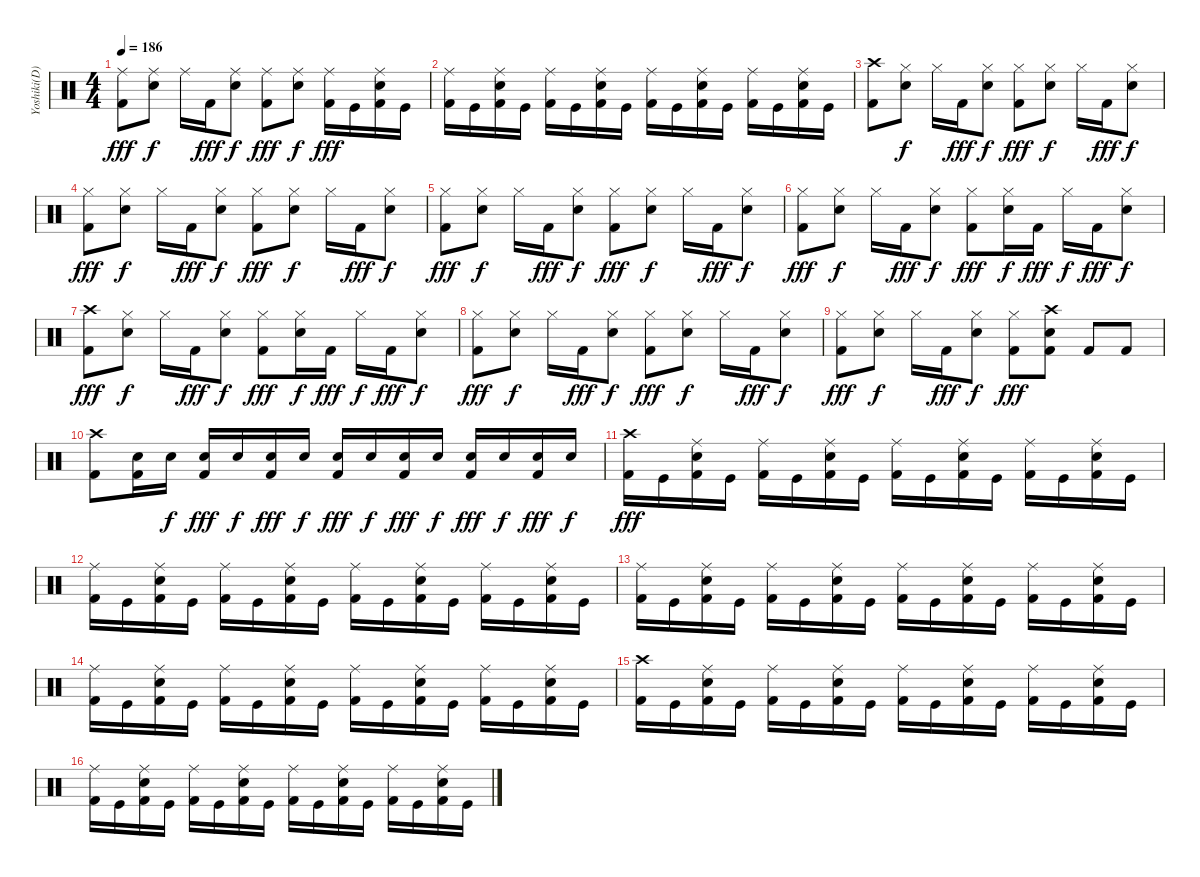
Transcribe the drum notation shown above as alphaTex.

\track ("Yoshiki(D)" "Yoshiki(D)") {instrument percussion}
\staff {score}
\articulation defaults
\ts (4 4)
\tempo 186
\clef neutral
\ks c
("Ride (middle)" "Kick (hit) 2").8{dy fff} ("Ride (middle)" "Electric Snare (hit)").8{dy f} "Ride (middle)".16 "Kick (hit) 2".16{dy fff} ("Ride (middle)" "Electric Snare (hit)").8{dy f} ("Ride (middle)" "Kick (hit) 2").8{dy fff} ("Ride (middle)" "Electric Snare (hit)").8{dy f} ("Ride (middle)" "Kick (hit) 2").16{dy fff} "Kick (hit)".16 ("Ride (middle)" "Electric Snare (hit)" "Kick (hit) 2").16 "Kick (hit)".16 |
("Ride (middle)" "Kick (hit) 2").16 "Kick (hit)".16 ("Ride (middle)" "Electric Snare (hit)" "Kick (hit) 2").16 "Kick (hit)".16 ("Ride (middle)" "Kick (hit) 2").16 "Kick (hit)".16 ("Ride (middle)" "Electric Snare (hit)" "Kick (hit) 2").16 "Kick (hit)".16 ("Ride (middle)" "Kick (hit) 2").16 "Kick (hit)".16 ("Ride (middle)" "Electric Snare (hit)" "Kick (hit) 2").16 "Kick (hit)".16 ("Ride (middle)" "Kick (hit) 2").16 "Kick (hit)".16 ("Ride (middle)" "Electric Snare (hit)" "Kick (hit) 2").16 "Kick (hit)".16 |
("Crash high (hit)" "Kick (hit) 2").8 ("Hi-Hat (closed)" "Electric Snare (hit)").8{dy f} "Hi-Hat (closed)".16 "Kick (hit) 2".16{dy fff} ("Hi-Hat (closed)" "Electric Snare (hit)").8{dy f} ("Hi-Hat (closed)" "Kick (hit) 2").8{dy fff} ("Hi-Hat (closed)" "Electric Snare (hit)").8{dy f} "Hi-Hat (closed)".16 "Kick (hit) 2".16{dy fff} ("Hi-Hat (closed)" "Electric Snare (hit)").8{dy f} |
("Hi-Hat (closed)" "Kick (hit) 2").8{dy fff} ("Hi-Hat (closed)" "Electric Snare (hit)").8{dy f} "Hi-Hat (closed)".16 "Kick (hit) 2".16{dy fff} ("Hi-Hat (closed)" "Electric Snare (hit)").8{dy f} ("Hi-Hat (closed)" "Kick (hit) 2").8{dy fff} ("Hi-Hat (closed)" "Electric Snare (hit)").8{dy f} "Hi-Hat (closed)".16 "Kick (hit) 2".16{dy fff} ("Hi-Hat (closed)" "Electric Snare (hit)").8{dy f} |
("Hi-Hat (closed)" "Kick (hit) 2").8{dy fff} ("Hi-Hat (closed)" "Electric Snare (hit)").8{dy f} "Hi-Hat (closed)".16 "Kick (hit) 2".16{dy fff} ("Hi-Hat (closed)" "Electric Snare (hit)").8{dy f} ("Hi-Hat (closed)" "Kick (hit) 2").8{dy fff} ("Hi-Hat (closed)" "Electric Snare (hit)").8{dy f} "Hi-Hat (closed)".16 "Kick (hit) 2".16{dy fff} ("Hi-Hat (closed)" "Electric Snare (hit)").8{dy f} |
("Hi-Hat (closed)" "Kick (hit) 2").8{dy fff} ("Hi-Hat (closed)" "Electric Snare (hit)").8{dy f} "Hi-Hat (closed)".16 "Kick (hit) 2".16{dy fff} ("Hi-Hat (closed)" "Electric Snare (hit)").8{dy f} ("Hi-Hat (closed)" "Kick (hit) 2").8{dy fff} ("Hi-Hat (closed)" "Electric Snare (hit)").16{dy f} "Kick (hit) 2".16{dy fff} "Hi-Hat (closed)".16{dy f} "Kick (hit) 2".16{dy fff} ("Hi-Hat (closed)" "Electric Snare (hit)").8{dy f} |
("Crash high (hit)" "Kick (hit) 2").8{dy fff} ("Hi-Hat (closed)" "Electric Snare (hit)").8{dy f} "Hi-Hat (closed)".16 "Kick (hit) 2".16{dy fff} ("Hi-Hat (closed)" "Electric Snare (hit)").8{dy f} ("Hi-Hat (closed)" "Kick (hit) 2").8{dy fff} ("Hi-Hat (closed)" "Electric Snare (hit)").16{dy f} "Kick (hit) 2".16{dy fff} "Hi-Hat (closed)".16{dy f} "Kick (hit) 2".16{dy fff} ("Hi-Hat (closed)" "Electric Snare (hit)").8{dy f} |
("Hi-Hat (closed)" "Kick (hit) 2").8{dy fff} ("Hi-Hat (closed)" "Electric Snare (hit)").8{dy f} "Hi-Hat (closed)".16 "Kick (hit) 2".16{dy fff} ("Hi-Hat (closed)" "Electric Snare (hit)").8{dy f} ("Hi-Hat (closed)" "Kick (hit) 2").8{dy fff} ("Hi-Hat (closed)" "Electric Snare (hit)").8{dy f} "Hi-Hat (closed)".16 "Kick (hit) 2".16{dy fff} ("Hi-Hat (closed)" "Electric Snare (hit)").8{dy f} |
("Hi-Hat (closed)" "Kick (hit) 2").8{dy fff} ("Hi-Hat (closed)" "Electric Snare (hit)").8{dy f} "Hi-Hat (closed)".16 "Kick (hit) 2".16{dy fff} ("Hi-Hat (closed)" "Electric Snare (hit)").8{dy f} ("Hi-Hat (closed)" "Kick (hit) 2").8{dy fff} ("Crash high (hit)" "Electric Snare (hit)" "Kick (hit) 2").8 "Kick (hit) 2".8 "Kick (hit) 2".8 |
("Crash high (hit)" "Kick (hit) 2").8 ("Electric Snare (hit)" "Kick (hit) 2").16 "Electric Snare (hit)".16{dy f} ("Electric Snare (hit)" "Kick (hit) 2").16{dy fff} "Electric Snare (hit)".16{dy f} ("Electric Snare (hit)" "Kick (hit) 2").16{dy fff} "Electric Snare (hit)".16{dy f} ("Electric Snare (hit)" "Kick (hit) 2").16{dy fff} "Electric Snare (hit)".16{dy f} ("Electric Snare (hit)" "Kick (hit) 2").16{dy fff} "Electric Snare (hit)".16{dy f} ("Electric Snare (hit)" "Kick (hit) 2").16{dy fff} "Electric Snare (hit)".16{dy f} ("Electric Snare (hit)" "Kick (hit) 2").16{dy fff} "Electric Snare (hit)".16{dy f} |
("Crash high (hit)" "Kick (hit) 2").16{dy fff} "Kick (hit)".16 ("Ride (middle)" "Electric Snare (hit)" "Kick (hit) 2").16 "Kick (hit)".16 ("Ride (middle)" "Kick (hit) 2").16 "Kick (hit)".16 ("Ride (middle)" "Electric Snare (hit)" "Kick (hit) 2").16 "Kick (hit)".16 ("Ride (middle)" "Kick (hit) 2").16 "Kick (hit)".16 ("Ride (middle)" "Electric Snare (hit)" "Kick (hit) 2").16 "Kick (hit)".16 ("Ride (middle)" "Kick (hit) 2").16 "Kick (hit)".16 ("Ride (middle)" "Electric Snare (hit)" "Kick (hit) 2").16 "Kick (hit)".16 |
("Ride (middle)" "Kick (hit) 2").16 "Kick (hit)".16 ("Ride (middle)" "Electric Snare (hit)" "Kick (hit) 2").16 "Kick (hit)".16 ("Ride (middle)" "Kick (hit) 2").16 "Kick (hit)".16 ("Ride (middle)" "Electric Snare (hit)" "Kick (hit) 2").16 "Kick (hit)".16 ("Ride (middle)" "Kick (hit) 2").16 "Kick (hit)".16 ("Ride (middle)" "Electric Snare (hit)" "Kick (hit) 2").16 "Kick (hit)".16 ("Ride (middle)" "Kick (hit) 2").16 "Kick (hit)".16 ("Ride (middle)" "Electric Snare (hit)" "Kick (hit) 2").16 "Kick (hit)".16 |
("Ride (middle)" "Kick (hit) 2").16 "Kick (hit)".16 ("Ride (middle)" "Electric Snare (hit)" "Kick (hit) 2").16 "Kick (hit)".16 ("Ride (middle)" "Kick (hit) 2").16 "Kick (hit)".16 ("Ride (middle)" "Electric Snare (hit)" "Kick (hit) 2").16 "Kick (hit)".16 ("Ride (middle)" "Kick (hit) 2").16 "Kick (hit)".16 ("Ride (middle)" "Electric Snare (hit)" "Kick (hit) 2").16 "Kick (hit)".16 ("Ride (middle)" "Kick (hit) 2").16 "Kick (hit)".16 ("Ride (middle)" "Electric Snare (hit)" "Kick (hit) 2").16 "Kick (hit)".16 |
("Ride (middle)" "Kick (hit) 2").16 "Kick (hit)".16 ("Ride (middle)" "Electric Snare (hit)" "Kick (hit) 2").16 "Kick (hit)".16 ("Ride (middle)" "Kick (hit) 2").16 "Kick (hit)".16 ("Ride (middle)" "Electric Snare (hit)" "Kick (hit) 2").16 "Kick (hit)".16 ("Ride (middle)" "Kick (hit) 2").16 "Kick (hit)".16 ("Ride (middle)" "Electric Snare (hit)" "Kick (hit) 2").16 "Kick (hit)".16 ("Ride (middle)" "Kick (hit) 2").16 "Kick (hit)".16 ("Ride (middle)" "Electric Snare (hit)" "Kick (hit) 2").16 "Kick (hit)".16 |
("Crash high (hit)" "Kick (hit) 2").16 "Kick (hit)".16 ("Ride (middle)" "Electric Snare (hit)" "Kick (hit) 2").16 "Kick (hit)".16 ("Ride (middle)" "Kick (hit) 2").16 "Kick (hit)".16 ("Ride (middle)" "Electric Snare (hit)" "Kick (hit) 2").16 "Kick (hit)".16 ("Ride (middle)" "Kick (hit) 2").16 "Kick (hit)".16 ("Ride (middle)" "Electric Snare (hit)" "Kick (hit) 2").16 "Kick (hit)".16 ("Ride (middle)" "Kick (hit) 2").16 "Kick (hit)".16 ("Ride (middle)" "Electric Snare (hit)" "Kick (hit) 2").16 "Kick (hit)".16 |
("Ride (middle)" "Kick (hit) 2").16 "Kick (hit)".16 ("Ride (middle)" "Electric Snare (hit)" "Kick (hit) 2").16 "Kick (hit)".16 ("Ride (middle)" "Kick (hit) 2").16 "Kick (hit)".16 ("Ride (middle)" "Electric Snare (hit)" "Kick (hit) 2").16 "Kick (hit)".16 ("Ride (middle)" "Kick (hit) 2").16 "Kick (hit)".16 ("Ride (middle)" "Electric Snare (hit)" "Kick (hit) 2").16 "Kick (hit)".16 ("Ride (middle)" "Kick (hit) 2").16 "Kick (hit)".16 ("Ride (middle)" "Electric Snare (hit)" "Kick (hit) 2").16 "Kick (hit)".16
